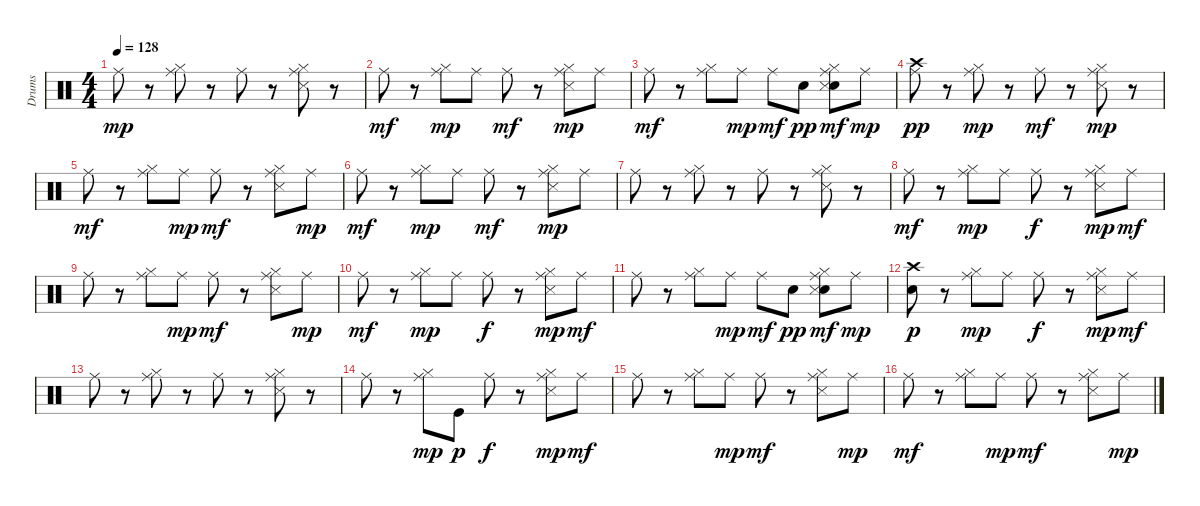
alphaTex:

\track ("Drums" "Drums") {instrument percussion}
\staff {score}
\articulation defaults
\ts (4 4)
\tempo 128
\clef neutral
\ks c "Ride (middle)".8{dy mp}
r.8 ("Hi-Hat (closed)" "Ride (middle)").8 r.8 "Ride (middle)".8 r.8 ("Hi-Hat (closed)" "Snare (side stick) 3" "Ride (middle)").8 r.8 |
"Ride (middle)".8{dy mf} r.8 ("Hi-Hat (closed)" "Ride (middle)").8{dy mp} "Ride (middle)".8 "Ride (middle)".8{dy mf} r.8 ("Hi-Hat (closed)" "Snare (side stick) 3" "Ride (middle)").8{dy mp} "Ride (middle)".8 |
"Ride (middle)".8{dy mf} r.8 ("Hi-Hat (closed)" "Ride (middle)").8 "Ride (middle)".8{dy mp} "Ride (middle)".8{dy mf} "Snare (hit) 2".8{dy pp} ("Snare (hit) 2" "Hi-Hat (closed)" "Snare (side stick) 3" "Ride (middle)").8{dy mf} "Ride (middle)".8{dy mp} |
("Ride (middle)" "Crash high (hit)").8{dy pp} r.8 ("Hi-Hat (closed)" "Ride (middle)").8{dy mp} r.8 "Ride (middle)".8{dy mf} r.8 ("Hi-Hat (closed)" "Snare (side stick) 3" "Ride (middle)").8{dy mp} r.8 |
"Ride (middle)".8{dy mf} r.8 ("Hi-Hat (closed)" "Ride (middle)").8 "Ride (middle)".8{dy mp} "Ride (middle)".8{dy mf} r.8 ("Hi-Hat (closed)" "Snare (side stick) 3" "Ride (middle)").8 "Ride (middle)".8{dy mp} |
"Ride (middle)".8{dy mf} r.8 ("Hi-Hat (closed)" "Ride (middle)").8{dy mp} "Ride (middle)".8 "Ride (middle)".8{dy mf} r.8 ("Hi-Hat (closed)" "Snare (side stick) 3" "Ride (middle)").8{dy mp} "Ride (middle)".8 |
"Ride (middle)".8 r.8 ("Hi-Hat (closed)" "Ride (middle)").8 r.8 "Ride (middle)".8 r.8 ("Hi-Hat (closed)" "Snare (side stick) 3" "Ride (middle)").8 r.8 |
"Ride (middle)".8{dy mf} r.8 ("Hi-Hat (closed)" "Ride (middle)").8{dy mp} "Ride (middle)".8 "Ride (middle)".8{dy f} r.8 ("Hi-Hat (closed)" "Snare (side stick) 3" "Ride (middle)").8{dy mp} "Ride (middle)".8{dy mf} |
"Ride (middle)".8 r.8 ("Hi-Hat (closed)" "Ride (middle)").8 "Ride (middle)".8{dy mp} "Ride (middle)".8{dy mf} r.8 ("Hi-Hat (closed)" "Snare (side stick) 3" "Ride (middle)").8 "Ride (middle)".8{dy mp} |
"Ride (middle)".8{dy mf} r.8 ("Hi-Hat (closed)" "Ride (middle)").8{dy mp} "Ride (middle)".8 "Ride (middle)".8{dy f} r.8 ("Hi-Hat (closed)" "Snare (side stick) 3" "Ride (middle)").8{dy mp} "Ride (middle)".8{dy mf} |
"Ride (middle)".8 r.8 ("Hi-Hat (closed)" "Ride (middle)").8 "Ride (middle)".8{dy mp} "Ride (middle)".8{dy mf} "Snare (hit) 2".8{dy pp} ("Snare (hit) 2" "Hi-Hat (closed)" "Snare (side stick) 3" "Ride (middle)").8{dy mf} "Ride (middle)".8{dy mp} |
("Snare (hit) 2" "Crash high (hit)").8{dy p} r.8 ("Hi-Hat (closed)" "Ride (middle)").8{dy mp} "Ride (middle)".8 "Ride (middle)".8{dy f} r.8 ("Hi-Hat (closed)" "Snare (side stick) 3" "Ride (middle)").8{dy mp} "Ride (middle)".8{dy mf} |
"Ride (middle)".8 r.8 ("Hi-Hat (closed)" "Ride (middle)").8 r.8 "Ride (middle)".8 r.8 ("Hi-Hat (closed)" "Snare (side stick) 3" "Ride (middle)").8 r.8 |
"Ride (middle)".8 r.8 ("Hi-Hat (closed)" "Ride (middle)").8{dy mp} "Kick (hit)".8{dy p} "Ride (middle)".8{dy f} r.8 ("Hi-Hat (closed)" "Snare (side stick) 3" "Ride (middle)").8{dy mp} "Ride (middle)".8{dy mf} |
"Ride (middle)".8 r.8 ("Hi-Hat (closed)" "Ride (middle)").8 "Ride (middle)".8{dy mp} "Ride (middle)".8{dy mf} r.8 ("Hi-Hat (closed)" "Snare (side stick) 3" "Ride (middle)").8 "Ride (middle)".8{dy mp} |
"Ride (middle)".8{dy mf} r.8 ("Hi-Hat (closed)" "Ride (middle)").8 "Ride (middle)".8{dy mp} "Ride (middle)".8{dy mf} r.8 ("Hi-Hat (closed)" "Snare (side stick) 3" "Ride (middle)").8 "Ride (middle)".8{dy mp}
